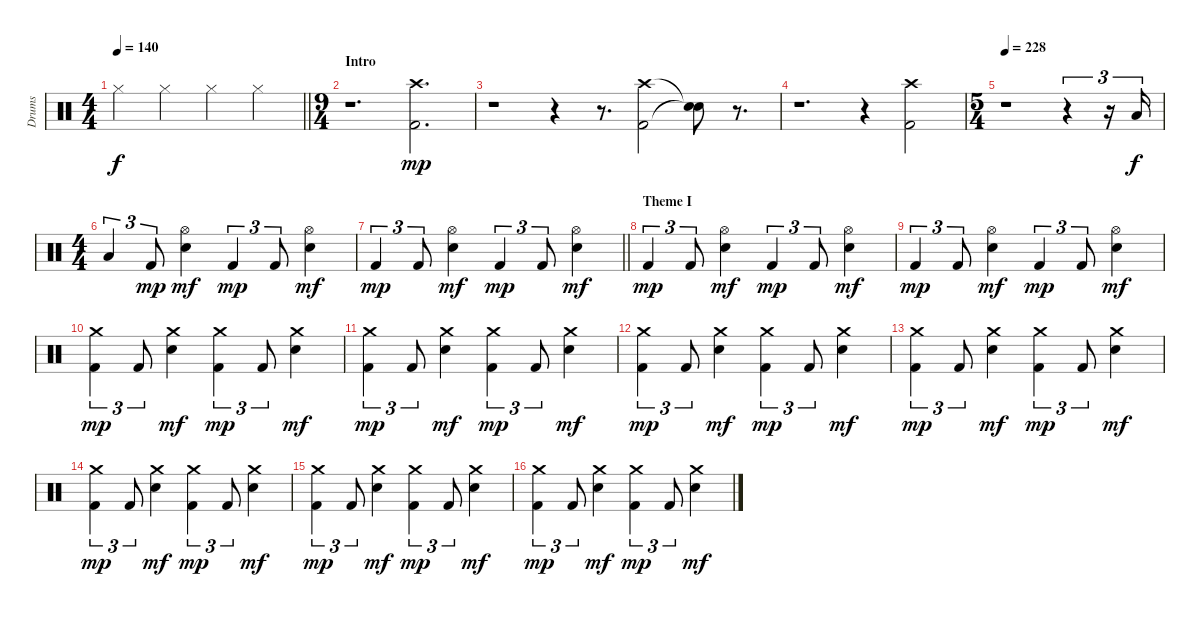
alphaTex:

\track ("Drums" "Drums") {instrument percussion}
\staff {score}
\articulation defaults
\ts (4 4)
\tempo 140
\clef neutral
\barLineRight lightlight
\ks c "Hi-Hat (closed)".4{dy f} "Hi-Hat (closed)".4 "Hi-Hat (closed)".4 "Hi-Hat (closed)".4
|
\ts (9 4)
\section ("" "Intro")
r.1{d} ("Crash high (hit)" "Kick (hit) 2").2{d dy mp} |
r.1 r.4 r.8{d} ("Crash high (hit)" "Kick (hit) 2").2 ("Snare (hit)"{t} "Snare (hit)"{t}).8 r.8{d} |
r.1{d} r.4 ("Crash high (hit)" "Kick (hit) 2").2 |
\ts (5 4)
\tempo 228
r.1 r.4{tu (3 2)} r.16{tu (3 2)} "Low Floor Tom (hit)".16{tu (3 2) dy f} |
\ts (4 4)
"Low Tom (hit)".4{tu (3 2)} "Kick (hit) 2".8{tu (3 2) dy mp} ("Hi-Hat (open)" "Electric Snare (hit)").4{dy mf} "Kick (hit) 2".4{tu (3 2) dy mp} "Kick (hit) 2".8{tu (3 2)} ("Hi-Hat (open)" "Electric Snare (hit)").4{dy mf} |
\barLineRight lightlight "Kick (hit) 2".4{tu (3 2) dy mp} "Kick (hit) 2".8{tu (3 2)}
("Hi-Hat (open)" "Electric Snare (hit)").4{dy mf} "Kick (hit) 2".4{tu (3 2) dy mp} "Kick (hit) 2".8{tu (3 2)} ("Hi-Hat (open)" "Electric Snare (hit)").4{dy mf} |
\section ("" "Theme I")
"Kick (hit) 2".4{tu (3 2) dy mp} "Kick (hit) 2".8{tu (3 2)} ("Hi-Hat (open)" "Electric Snare (hit)").4{dy mf} "Kick (hit) 2".4{tu (3 2) dy mp} "Kick (hit) 2".8{tu (3 2)} ("Hi-Hat (open)" "Electric Snare (hit)").4{dy mf} |
"Kick (hit) 2".4{tu (3 2) dy mp} "Kick (hit) 2".8{tu (3 2)} ("Hi-Hat (open)" "Electric Snare (hit)").4{dy mf} "Kick (hit) 2".4{tu (3 2) dy mp} "Kick (hit) 2".8{tu (3 2)} ("Hi-Hat (open)" "Electric Snare (hit)").4{dy mf} |
("Crash medium (hit)" "Kick (hit) 2").4{tu (3 2) dy mp} "Kick (hit) 2".8{tu (3 2)} ("Crash medium (hit)" "Electric Snare (hit)").4{dy mf} ("Crash medium (hit)" "Kick (hit) 2").4{tu (3 2) dy mp} "Kick (hit) 2".8{tu (3 2)} ("Crash medium (hit)" "Electric Snare (hit)").4{dy mf} |
("Crash medium (hit)" "Kick (hit) 2").4{tu (3 2) dy mp} "Kick (hit) 2".8{tu (3 2)} ("Crash medium (hit)" "Electric Snare (hit)").4{dy mf} ("Crash medium (hit)" "Kick (hit) 2").4{tu (3 2) dy mp} "Kick (hit) 2".8{tu (3 2)} ("Crash medium (hit)" "Electric Snare (hit)").4{dy mf} |
("Crash medium (hit)" "Kick (hit) 2").4{tu (3 2) dy mp} "Kick (hit) 2".8{tu (3 2)} ("Crash medium (hit)" "Electric Snare (hit)").4{dy mf} ("Crash medium (hit)" "Kick (hit) 2").4{tu (3 2) dy mp} "Kick (hit) 2".8{tu (3 2)} ("Crash medium (hit)" "Electric Snare (hit)").4{dy mf} |
("Crash medium (hit)" "Kick (hit) 2").4{tu (3 2) dy mp} "Kick (hit) 2".8{tu (3 2)} ("Crash medium (hit)" "Electric Snare (hit)").4{dy mf} ("Crash medium (hit)" "Kick (hit) 2").4{tu (3 2) dy mp} "Kick (hit) 2".8{tu (3 2)} ("Crash medium (hit)" "Electric Snare (hit)").4{dy mf} |
("Crash medium (hit)" "Kick (hit) 2").4{tu (3 2) dy mp} "Kick (hit) 2".8{tu (3 2)} ("Crash medium (hit)" "Electric Snare (hit)").4{dy mf} ("Crash medium (hit)" "Kick (hit) 2").4{tu (3 2) dy mp} "Kick (hit) 2".8{tu (3 2)} ("Crash medium (hit)" "Electric Snare (hit)").4{dy mf} |
("Crash medium (hit)" "Kick (hit) 2").4{tu (3 2) dy mp} "Kick (hit) 2".8{tu (3 2)} ("Crash medium (hit)" "Electric Snare (hit)").4{dy mf} ("Crash medium (hit)" "Kick (hit) 2").4{tu (3 2) dy mp} "Kick (hit) 2".8{tu (3 2)} ("Crash medium (hit)" "Electric Snare (hit)").4{dy mf} |
("Crash medium (hit)" "Kick (hit) 2").4{tu (3 2) dy mp} "Kick (hit) 2".8{tu (3 2)} ("Crash medium (hit)" "Electric Snare (hit)").4{dy mf} ("Crash medium (hit)" "Kick (hit) 2").4{tu (3 2) dy mp} "Kick (hit) 2".8{tu (3 2)} ("Crash medium (hit)" "Electric Snare (hit)").4{dy mf}
